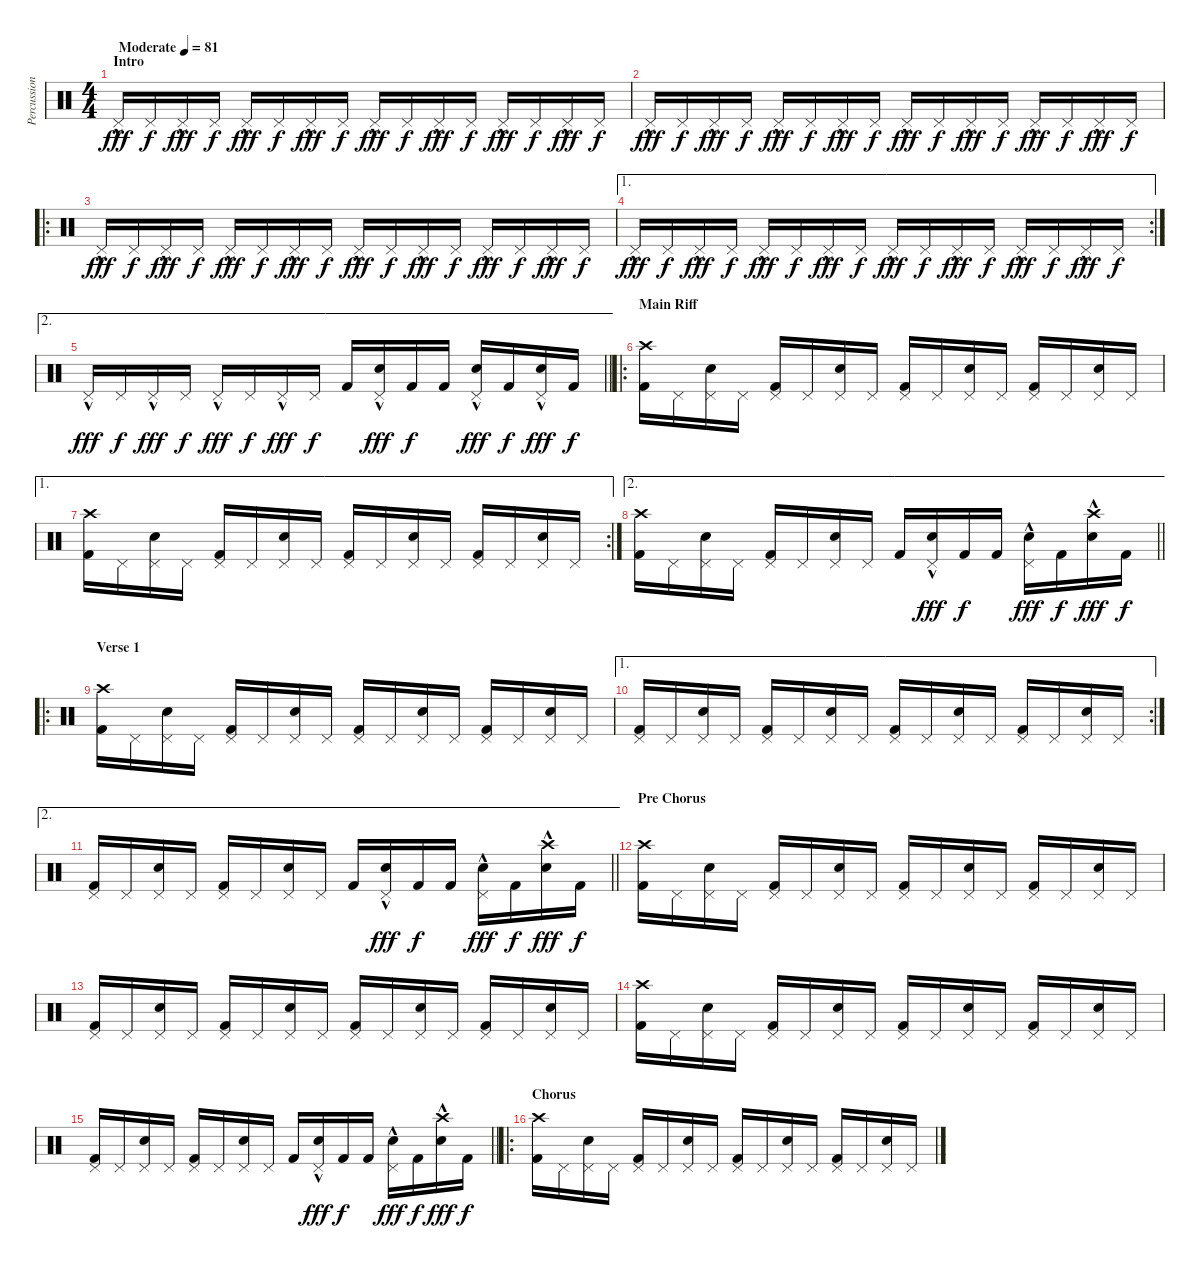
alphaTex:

\track ("Percussion" "Percussion") {instrument percussion}
\staff {score}
\articulation defaults
\ts (4 4)
\section ("" "Intro")
\tempo (81 "Moderate")
\clef neutral
\ks c "Pedal Hi-Hat (hit)"{hac}.16{dy fff} "Pedal Hi-Hat (hit)".16{dy f} "Pedal Hi-Hat (hit)"{hac}.16{dy fff} "Pedal Hi-Hat (hit)".16{dy f} "Pedal Hi-Hat (hit)"{hac}.16{dy fff} "Pedal Hi-Hat (hit)".16{dy f} "Pedal Hi-Hat (hit)"{hac}.16{dy fff} "Pedal Hi-Hat (hit)".16{dy f} "Pedal Hi-Hat (hit)"{hac}.16{dy fff} "Pedal Hi-Hat (hit)".16{dy f} "Pedal Hi-Hat (hit)"{hac}.16{dy fff} "Pedal Hi-Hat (hit)".16{dy f} "Pedal Hi-Hat (hit)"{hac}.16{dy fff} "Pedal Hi-Hat (hit)".16{dy f} "Pedal Hi-Hat (hit)"{hac}.16{dy fff} "Pedal Hi-Hat (hit)".16{dy f}
|
"Pedal Hi-Hat (hit)"{hac}.16{dy fff} "Pedal Hi-Hat (hit)".16{dy f} "Pedal Hi-Hat (hit)"{hac}.16{dy fff} "Pedal Hi-Hat (hit)".16{dy f} "Pedal Hi-Hat (hit)"{hac}.16{dy fff} "Pedal Hi-Hat (hit)".16{dy f} "Pedal Hi-Hat (hit)"{hac}.16{dy fff} "Pedal Hi-Hat (hit)".16{dy f} "Pedal Hi-Hat (hit)"{hac}.16{dy fff} "Pedal Hi-Hat (hit)".16{dy f} "Pedal Hi-Hat (hit)"{hac}.16{dy fff} "Pedal Hi-Hat (hit)".16{dy f} "Pedal Hi-Hat (hit)"{hac}.16{dy fff} "Pedal Hi-Hat (hit)".16{dy f} "Pedal Hi-Hat (hit)"{hac}.16{dy fff} "Pedal Hi-Hat (hit)".16{dy f} |
\ro "Pedal Hi-Hat (hit)"{hac}.16{dy fff} "Pedal Hi-Hat (hit)".16{dy f} "Pedal Hi-Hat (hit)"{hac}.16{dy fff} "Pedal Hi-Hat (hit)".16{dy f} "Pedal Hi-Hat (hit)"{hac}.16{dy fff} "Pedal Hi-Hat (hit)".16{dy f} "Pedal Hi-Hat (hit)"{hac}.16{dy fff} "Pedal Hi-Hat (hit)".16{dy f} "Pedal Hi-Hat (hit)"{hac}.16{dy fff} "Pedal Hi-Hat (hit)".16{dy f} "Pedal Hi-Hat (hit)"{hac}.16{dy fff} "Pedal Hi-Hat (hit)".16{dy f} "Pedal Hi-Hat (hit)"{hac}.16{dy fff} "Pedal Hi-Hat (hit)".16{dy f} "Pedal Hi-Hat (hit)"{hac}.16{dy fff} "Pedal Hi-Hat (hit)".16{dy f}
|
\ae 1
\rc 2 "Pedal Hi-Hat (hit)"{hac}.16{dy fff} "Pedal Hi-Hat (hit)".16{dy f} "Pedal Hi-Hat (hit)"{hac}.16{dy fff} "Pedal Hi-Hat (hit)".16{dy f} "Pedal Hi-Hat (hit)"{hac}.16{dy fff} "Pedal Hi-Hat (hit)".16{dy f} "Pedal Hi-Hat (hit)"{hac}.16{dy fff} "Pedal Hi-Hat (hit)".16{dy f} "Pedal Hi-Hat (hit)"{hac}.16{dy fff} "Pedal Hi-Hat (hit)".16{dy f} "Pedal Hi-Hat (hit)"{hac}.16{dy fff} "Pedal Hi-Hat (hit)".16{dy f} "Pedal Hi-Hat (hit)"{hac}.16{dy fff} "Pedal Hi-Hat (hit)".16{dy f} "Pedal Hi-Hat (hit)"{hac}.16{dy fff} "Pedal Hi-Hat (hit)".16{dy f}
|
\ae 2
\barLineRight lightlight "Pedal Hi-Hat (hit)"{hac}.16{dy fff} "Pedal Hi-Hat (hit)".16{dy f} "Pedal Hi-Hat (hit)"{hac}.16{dy fff} "Pedal Hi-Hat (hit)".16{dy f} "Pedal Hi-Hat (hit)"{hac}.16{dy fff} "Pedal Hi-Hat (hit)".16{dy f} "Pedal Hi-Hat (hit)"{hac}.16{dy fff} "Pedal Hi-Hat (hit)".16{dy f} "Kick (hit) 2".16
("Pedal Hi-Hat (hit)"{hac} "Electric Snare (hit)"{hac}).16{dy fff} "Kick (hit) 2".16{dy f} "Kick (hit) 2".16 ("Pedal Hi-Hat (hit)"{hac} "Electric Snare (hit)"{hac}).16{dy fff} "Kick (hit) 2".16{dy f} ("Pedal Hi-Hat (hit)"{hac} "Electric Snare (hit)"{hac}).16{dy fff} "Kick (hit) 2".16{dy f} |
\ro
\section ("" "Main Riff")
("Crash high (hit)" "Kick (hit) 2").16 "Pedal Hi-Hat (hit)".16 ("Pedal Hi-Hat (hit)" "Electric Snare (hit)").16 "Pedal Hi-Hat (hit)".16 ("Pedal Hi-Hat (hit)" "Kick (hit) 2").16 "Pedal Hi-Hat (hit)".16 ("Pedal Hi-Hat (hit)" "Electric Snare (hit)").16 "Pedal Hi-Hat (hit)".16 ("Pedal Hi-Hat (hit)" "Kick (hit) 2").16 "Pedal Hi-Hat (hit)".16 ("Pedal Hi-Hat (hit)" "Electric Snare (hit)").16 "Pedal Hi-Hat (hit)".16 ("Pedal Hi-Hat (hit)" "Kick (hit) 2").16 "Pedal Hi-Hat (hit)".16 ("Pedal Hi-Hat (hit)" "Electric Snare (hit)").16 "Pedal Hi-Hat (hit)".16 |
\ae 1
\rc 2
("Crash high (hit)" "Kick (hit) 2").16 "Pedal Hi-Hat (hit)".16 ("Pedal Hi-Hat (hit)" "Electric Snare (hit)").16 "Pedal Hi-Hat (hit)".16 ("Pedal Hi-Hat (hit)" "Kick (hit) 2").16 "Pedal Hi-Hat (hit)".16 ("Pedal Hi-Hat (hit)" "Electric Snare (hit)").16 "Pedal Hi-Hat (hit)".16 ("Pedal Hi-Hat (hit)" "Kick (hit) 2").16 "Pedal Hi-Hat (hit)".16 ("Pedal Hi-Hat (hit)" "Electric Snare (hit)").16 "Pedal Hi-Hat (hit)".16 ("Pedal Hi-Hat (hit)" "Kick (hit) 2").16 "Pedal Hi-Hat (hit)".16 ("Pedal Hi-Hat (hit)" "Electric Snare (hit)").16 "Pedal Hi-Hat (hit)".16 |
\ae 2
\barLineRight lightlight
("Crash high (hit)" "Kick (hit) 2").16 "Pedal Hi-Hat (hit)".16 ("Pedal Hi-Hat (hit)" "Electric Snare (hit)").16 "Pedal Hi-Hat (hit)".16 ("Pedal Hi-Hat (hit)" "Kick (hit) 2").16 "Pedal Hi-Hat (hit)".16 ("Pedal Hi-Hat (hit)" "Electric Snare (hit)").16 "Pedal Hi-Hat (hit)".16 "Kick (hit) 2".16 ("Pedal Hi-Hat (hit)"{hac} "Electric Snare (hit)"{hac}).16{dy fff} "Kick (hit) 2".16{dy f} "Kick (hit) 2".16 ("Pedal Hi-Hat (hit)"{hac} "Electric Snare (hit)"{hac}).16{dy fff} "Kick (hit) 2".16{dy f} ("Crash high (hit)"{hac} "Electric Snare (hit)"{hac}).16{dy fff} "Kick (hit) 2".16{dy f} |
\ro
\section ("" "Verse 1")
("Crash high (hit)" "Kick (hit) 2").16 "Pedal Hi-Hat (hit)".16 ("Pedal Hi-Hat (hit)" "Electric Snare (hit)").16 "Pedal Hi-Hat (hit)".16 ("Pedal Hi-Hat (hit)" "Kick (hit) 2").16 "Pedal Hi-Hat (hit)".16 ("Pedal Hi-Hat (hit)" "Electric Snare (hit)").16 "Pedal Hi-Hat (hit)".16 ("Pedal Hi-Hat (hit)" "Kick (hit) 2").16 "Pedal Hi-Hat (hit)".16 ("Pedal Hi-Hat (hit)" "Electric Snare (hit)").16 "Pedal Hi-Hat (hit)".16 ("Pedal Hi-Hat (hit)" "Kick (hit) 2").16 "Pedal Hi-Hat (hit)".16 ("Pedal Hi-Hat (hit)" "Electric Snare (hit)").16 "Pedal Hi-Hat (hit)".16 |
\ae 1
\rc 2
("Pedal Hi-Hat (hit)" "Kick (hit) 2").16 "Pedal Hi-Hat (hit)".16 ("Pedal Hi-Hat (hit)" "Electric Snare (hit)").16 "Pedal Hi-Hat (hit)".16 ("Pedal Hi-Hat (hit)" "Kick (hit) 2").16 "Pedal Hi-Hat (hit)".16 ("Pedal Hi-Hat (hit)" "Electric Snare (hit)").16 "Pedal Hi-Hat (hit)".16 ("Pedal Hi-Hat (hit)" "Kick (hit) 2").16 "Pedal Hi-Hat (hit)".16 ("Pedal Hi-Hat (hit)" "Electric Snare (hit)").16 "Pedal Hi-Hat (hit)".16 ("Pedal Hi-Hat (hit)" "Kick (hit) 2").16 "Pedal Hi-Hat (hit)".16 ("Pedal Hi-Hat (hit)" "Electric Snare (hit)").16 "Pedal Hi-Hat (hit)".16 |
\ae 2
\barLineRight lightlight
("Pedal Hi-Hat (hit)" "Kick (hit) 2").16 "Pedal Hi-Hat (hit)".16 ("Pedal Hi-Hat (hit)" "Electric Snare (hit)").16 "Pedal Hi-Hat (hit)".16 ("Pedal Hi-Hat (hit)" "Kick (hit) 2").16 "Pedal Hi-Hat (hit)".16 ("Pedal Hi-Hat (hit)" "Electric Snare (hit)").16 "Pedal Hi-Hat (hit)".16 "Kick (hit) 2".16 ("Pedal Hi-Hat (hit)"{hac} "Electric Snare (hit)"{hac}).16{dy fff} "Kick (hit) 2".16{dy f} "Kick (hit) 2".16 ("Pedal Hi-Hat (hit)"{hac} "Electric Snare (hit)"{hac}).16{dy fff} "Kick (hit) 2".16{dy f} ("Crash high (hit)"{hac} "Electric Snare (hit)"{hac}).16{dy fff} "Kick (hit) 2".16{dy f} |
\section ("" "Pre Chorus")
("Crash high (hit)" "Kick (hit) 2").16 "Pedal Hi-Hat (hit)".16 ("Pedal Hi-Hat (hit)" "Electric Snare (hit)").16 "Pedal Hi-Hat (hit)".16 ("Pedal Hi-Hat (hit)" "Kick (hit) 2").16 "Pedal Hi-Hat (hit)".16 ("Pedal Hi-Hat (hit)" "Electric Snare (hit)").16 "Pedal Hi-Hat (hit)".16 ("Pedal Hi-Hat (hit)" "Kick (hit) 2").16 "Pedal Hi-Hat (hit)".16 ("Pedal Hi-Hat (hit)" "Electric Snare (hit)").16 "Pedal Hi-Hat (hit)".16 ("Pedal Hi-Hat (hit)" "Kick (hit) 2").16 "Pedal Hi-Hat (hit)".16 ("Pedal Hi-Hat (hit)" "Electric Snare (hit)").16 "Pedal Hi-Hat (hit)".16 |
("Pedal Hi-Hat (hit)" "Kick (hit) 2").16 "Pedal Hi-Hat (hit)".16 ("Pedal Hi-Hat (hit)" "Electric Snare (hit)").16 "Pedal Hi-Hat (hit)".16 ("Pedal Hi-Hat (hit)" "Kick (hit) 2").16 "Pedal Hi-Hat (hit)".16 ("Pedal Hi-Hat (hit)" "Electric Snare (hit)").16 "Pedal Hi-Hat (hit)".16 ("Pedal Hi-Hat (hit)" "Kick (hit) 2").16 "Pedal Hi-Hat (hit)".16 ("Pedal Hi-Hat (hit)" "Electric Snare (hit)").16 "Pedal Hi-Hat (hit)".16 ("Pedal Hi-Hat (hit)" "Kick (hit) 2").16 "Pedal Hi-Hat (hit)".16 ("Pedal Hi-Hat (hit)" "Electric Snare (hit)").16 "Pedal Hi-Hat (hit)".16 |
("Crash high (hit)" "Kick (hit) 2").16 "Pedal Hi-Hat (hit)".16 ("Pedal Hi-Hat (hit)" "Electric Snare (hit)").16 "Pedal Hi-Hat (hit)".16 ("Pedal Hi-Hat (hit)" "Kick (hit) 2").16 "Pedal Hi-Hat (hit)".16 ("Pedal Hi-Hat (hit)" "Electric Snare (hit)").16 "Pedal Hi-Hat (hit)".16 ("Pedal Hi-Hat (hit)" "Kick (hit) 2").16 "Pedal Hi-Hat (hit)".16 ("Pedal Hi-Hat (hit)" "Electric Snare (hit)").16 "Pedal Hi-Hat (hit)".16 ("Pedal Hi-Hat (hit)" "Kick (hit) 2").16 "Pedal Hi-Hat (hit)".16 ("Pedal Hi-Hat (hit)" "Electric Snare (hit)").16 "Pedal Hi-Hat (hit)".16 |
\barLineRight lightlight
("Pedal Hi-Hat (hit)" "Kick (hit) 2").16 "Pedal Hi-Hat (hit)".16 ("Pedal Hi-Hat (hit)" "Electric Snare (hit)").16 "Pedal Hi-Hat (hit)".16 ("Pedal Hi-Hat (hit)" "Kick (hit) 2").16 "Pedal Hi-Hat (hit)".16 ("Pedal Hi-Hat (hit)" "Electric Snare (hit)").16 "Pedal Hi-Hat (hit)".16 "Kick (hit) 2".16 ("Pedal Hi-Hat (hit)"{hac} "Electric Snare (hit)"{hac}).16{dy fff} "Kick (hit) 2".16{dy f} "Kick (hit) 2".16 ("Pedal Hi-Hat (hit)"{hac} "Electric Snare (hit)"{hac}).16{dy fff} "Kick (hit) 2".16{dy f} ("Crash high (hit)"{hac} "Electric Snare (hit)"{hac}).16{dy fff} "Kick (hit) 2".16{dy f} |
\ro
\section ("" "Chorus")
("Crash high (hit)" "Kick (hit) 2").16 "Pedal Hi-Hat (hit)".16 ("Pedal Hi-Hat (hit)" "Electric Snare (hit)").16 "Pedal Hi-Hat (hit)".16 ("Pedal Hi-Hat (hit)" "Kick (hit) 2").16 "Pedal Hi-Hat (hit)".16 ("Pedal Hi-Hat (hit)" "Electric Snare (hit)").16 "Pedal Hi-Hat (hit)".16 ("Pedal Hi-Hat (hit)" "Kick (hit) 2").16 "Pedal Hi-Hat (hit)".16 ("Pedal Hi-Hat (hit)" "Electric Snare (hit)").16 "Pedal Hi-Hat (hit)".16 ("Pedal Hi-Hat (hit)" "Kick (hit) 2").16 "Pedal Hi-Hat (hit)".16 ("Pedal Hi-Hat (hit)" "Electric Snare (hit)").16 "Pedal Hi-Hat (hit)".16
